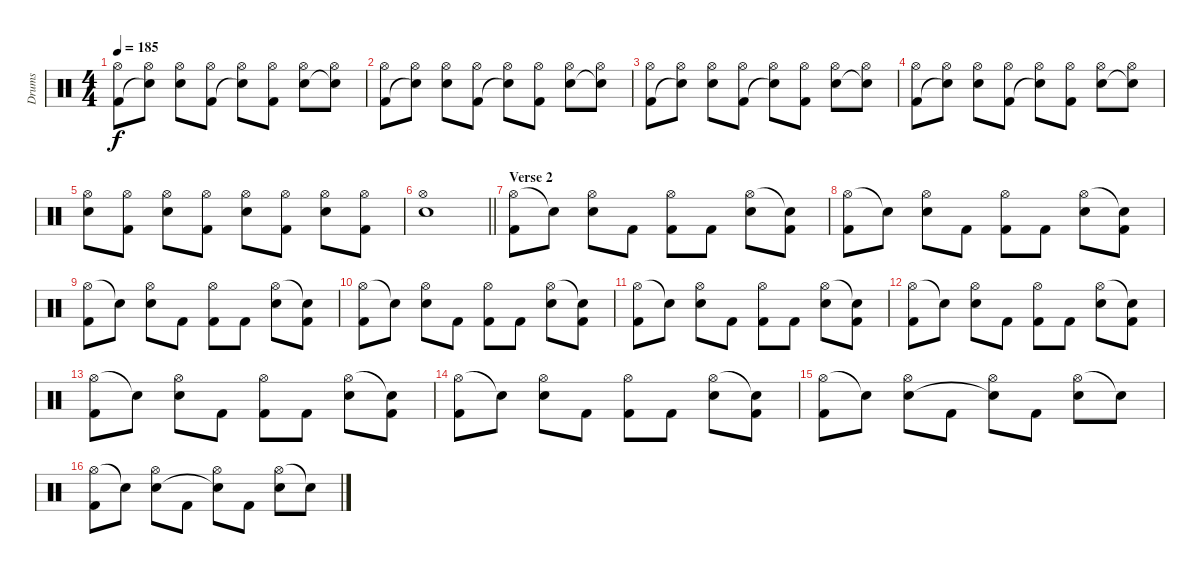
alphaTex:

\track ("Drums" "Drums") {instrument percussion}
\staff {score}
\articulation defaults
\ts (4 4)
\tempo 185
\clef neutral
\ks c
("Hi-Hat (open)" "Kick (hit) 2").8{dy f} ("Hi-Hat (open)" "Snare (hit)"{t}).8 ("Hi-Hat (open)" "Electric Snare (hit)").8 ("Hi-Hat (open)" "Kick (hit) 2").8 ("Hi-Hat (open)" "Snare (hit)"{t}).8 ("Hi-Hat (open)" "Kick (hit) 2").8 ("Hi-Hat (open)" "Electric Snare (hit)").8 ("Hi-Hat (open)" "Snare (hit)"{t}).8 |
("Hi-Hat (open)" "Kick (hit) 2").8 ("Hi-Hat (open)" "Snare (hit)"{t}).8 ("Hi-Hat (open)" "Electric Snare (hit)").8 ("Hi-Hat (open)" "Kick (hit) 2").8 ("Hi-Hat (open)" "Snare (hit)"{t}).8 ("Hi-Hat (open)" "Kick (hit) 2").8 ("Hi-Hat (open)" "Electric Snare (hit)").8 ("Hi-Hat (open)" "Snare (hit)"{t}).8 |
("Hi-Hat (open)" "Kick (hit) 2").8 ("Hi-Hat (open)" "Snare (hit)"{t}).8 ("Hi-Hat (open)" "Electric Snare (hit)").8 ("Hi-Hat (open)" "Kick (hit) 2").8 ("Hi-Hat (open)" "Snare (hit)"{t}).8 ("Hi-Hat (open)" "Kick (hit) 2").8 ("Hi-Hat (open)" "Electric Snare (hit)").8 ("Hi-Hat (open)" "Snare (hit)"{t}).8 |
("Hi-Hat (open)" "Kick (hit) 2").8 ("Hi-Hat (open)" "Snare (hit)"{t}).8 ("Hi-Hat (open)" "Electric Snare (hit)").8 ("Hi-Hat (open)" "Kick (hit) 2").8 ("Hi-Hat (open)" "Snare (hit)"{t}).8 ("Hi-Hat (open)" "Kick (hit) 2").8 ("Hi-Hat (open)" "Electric Snare (hit)").8 ("Hi-Hat (open)" "Snare (hit)"{t}).8 |
("Hi-Hat (open)" "Electric Snare (hit)").8 ("Hi-Hat (open)" "Kick (hit) 2").8 ("Hi-Hat (open)" "Electric Snare (hit)").8 ("Hi-Hat (open)" "Kick (hit) 2").8 ("Hi-Hat (open)" "Electric Snare (hit)").8 ("Hi-Hat (open)" "Kick (hit) 2").8 ("Hi-Hat (open)" "Electric Snare (hit)").8 ("Hi-Hat (open)" "Kick (hit) 2").8 |
\barLineRight lightlight
("Hi-Hat (open)" "Electric Snare (hit)").1 |
\section ("" "Verse 2")
("Hi-Hat (open)" "Kick (hit) 2").8 "Snare (hit)"{t}.8 ("Hi-Hat (open)" "Electric Snare (hit)").8 "Kick (hit) 2".8 ("Hi-Hat (open)" "Kick (hit) 2").8 "Kick (hit) 2".8 ("Hi-Hat (open)" "Electric Snare (hit)").8 ("Snare (hit)"{t} "Kick (hit) 2").8 |
("Hi-Hat (open)" "Kick (hit) 2").8 "Snare (hit)"{t}.8 ("Hi-Hat (open)" "Electric Snare (hit)").8 "Kick (hit) 2".8 ("Hi-Hat (open)" "Kick (hit) 2").8 "Kick (hit) 2".8 ("Hi-Hat (open)" "Electric Snare (hit)").8 ("Snare (hit)"{t} "Kick (hit) 2").8 |
("Hi-Hat (open)" "Kick (hit) 2").8 "Snare (hit)"{t}.8 ("Hi-Hat (open)" "Electric Snare (hit)").8 "Kick (hit) 2".8 ("Hi-Hat (open)" "Kick (hit) 2").8 "Kick (hit) 2".8 ("Hi-Hat (open)" "Electric Snare (hit)").8 ("Snare (hit)"{t} "Kick (hit) 2").8 |
("Hi-Hat (open)" "Kick (hit) 2").8 "Snare (hit)"{t}.8 ("Hi-Hat (open)" "Electric Snare (hit)").8 "Kick (hit) 2".8 ("Hi-Hat (open)" "Kick (hit) 2").8 "Kick (hit) 2".8 ("Hi-Hat (open)" "Electric Snare (hit)").8 ("Snare (hit)"{t} "Kick (hit) 2").8 |
("Hi-Hat (open)" "Kick (hit) 2").8 "Snare (hit)"{t}.8 ("Hi-Hat (open)" "Electric Snare (hit)").8 "Kick (hit) 2".8 ("Hi-Hat (open)" "Kick (hit) 2").8 "Kick (hit) 2".8 ("Hi-Hat (open)" "Electric Snare (hit)").8 ("Snare (hit)"{t} "Kick (hit) 2").8 |
("Hi-Hat (open)" "Kick (hit) 2").8 "Snare (hit)"{t}.8 ("Hi-Hat (open)" "Electric Snare (hit)").8 "Kick (hit) 2".8 ("Hi-Hat (open)" "Kick (hit) 2").8 "Kick (hit) 2".8 ("Hi-Hat (open)" "Electric Snare (hit)").8 ("Snare (hit)"{t} "Kick (hit) 2").8 |
("Hi-Hat (open)" "Kick (hit) 2").8 "Snare (hit)"{t}.8 ("Hi-Hat (open)" "Electric Snare (hit)").8 "Kick (hit) 2".8 ("Hi-Hat (open)" "Kick (hit) 2").8 "Kick (hit) 2".8 ("Hi-Hat (open)" "Electric Snare (hit)").8 ("Snare (hit)"{t} "Kick (hit) 2").8 |
("Hi-Hat (open)" "Kick (hit) 2").8 "Snare (hit)"{t}.8 ("Hi-Hat (open)" "Electric Snare (hit)").8 "Kick (hit) 2".8 ("Hi-Hat (open)" "Kick (hit) 2").8 "Kick (hit) 2".8 ("Hi-Hat (open)" "Electric Snare (hit)").8 ("Snare (hit)"{t} "Kick (hit) 2").8 |
("Hi-Hat (open)" "Kick (hit) 2").8 "Snare (hit)"{t}.8 ("Hi-Hat (open)" "Electric Snare (hit)").8 "Kick (hit) 2".8 ("Hi-Hat (open)" "Snare (hit)"{t}).8 "Kick (hit) 2".8 ("Hi-Hat (open)" "Electric Snare (hit)").8 "Snare (hit)"{t}.8 |
("Hi-Hat (open)" "Kick (hit) 2").8 "Snare (hit)"{t}.8 ("Hi-Hat (open)" "Electric Snare (hit)").8 "Kick (hit) 2".8 ("Hi-Hat (open)" "Snare (hit)"{t}).8 "Kick (hit) 2".8 ("Hi-Hat (open)" "Electric Snare (hit)").8 "Snare (hit)"{t}.8
